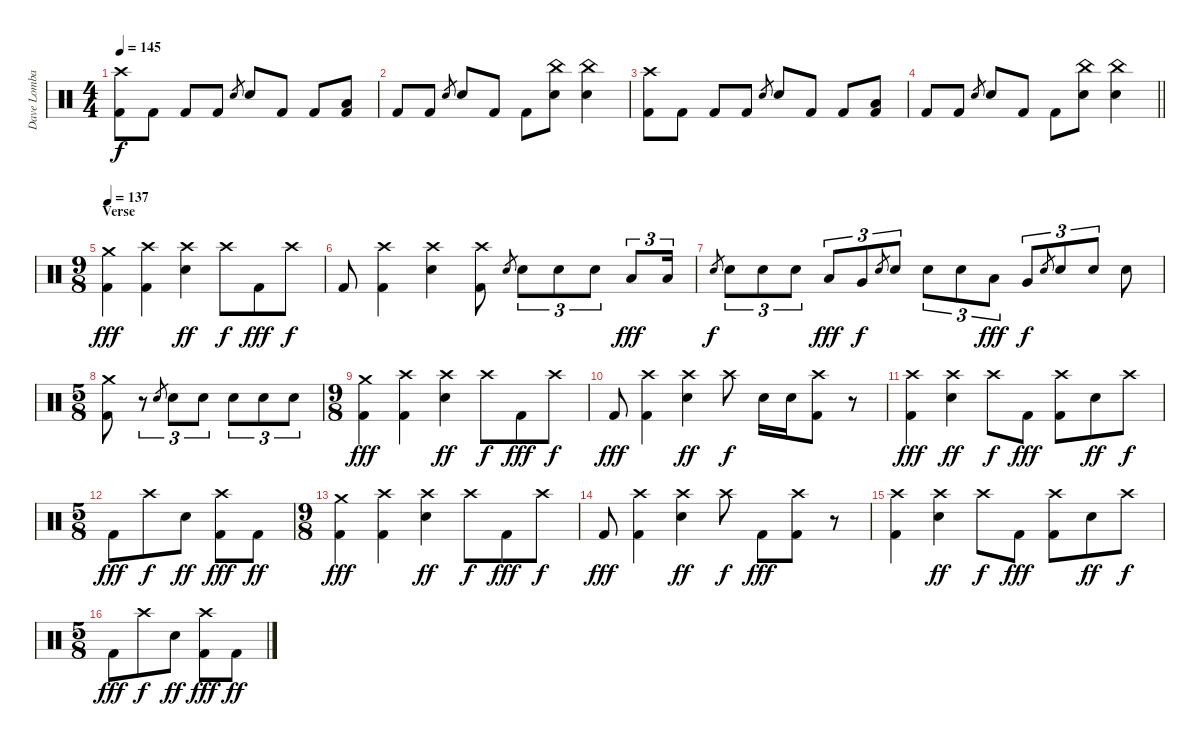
\track ("Dave Lombardo" "Dave Lomba") {instrument percussion}
\staff {score}
\articulation defaults
\ts (4 4)
\tempo 145
\clef neutral
\ks c
("Crash high (hit)" "Kick (hit) 2").8{dy f} "Kick (hit) 2".8 "Kick (hit) 2".8 "Kick (hit) 2".8 "Snare (hit) 2".8{gr} "Snare (hit) 2".8 "Kick (hit) 2".8 "Kick (hit) 2".8 ("Low Floor Tom (hit)" "Kick (hit) 2").8 |
"Kick (hit) 2".8 "Kick (hit) 2".8 "Snare (hit) 2".8{gr} "Snare (hit) 2".8 "Kick (hit) 2".8 "Kick (hit) 2".8 ("China (hit)" "Snare (hit) 2").8 ("China (hit)" "Snare (hit) 2").4 |
("Crash high (hit)" "Kick (hit) 2").8 "Kick (hit) 2".8 "Kick (hit) 2".8 "Kick (hit) 2".8 "Snare (hit) 2".8{gr} "Snare (hit) 2".8 "Kick (hit) 2".8 "Kick (hit) 2".8 ("Low Floor Tom (hit)" "Kick (hit) 2").8 |
\barLineRight lightlight "Kick (hit) 2".8 "Kick (hit) 2".8 "Snare (hit) 2".8{gr} "Snare (hit) 2".8 "Kick (hit) 2".8 "Kick (hit) 2".8
("China (hit)" "Snare (hit) 2").8 ("China (hit)" "Snare (hit) 2").4 |
\ts (9 8)
\section ("" "Verse ")
\tempo 137
("Crash medium (hit)" "Kick (hit) 2").4{dy fff} ("Crash high (hit)" "Kick (hit) 2").4 ("Crash high (hit)" "Snare (hit) 2").4{dy ff} "Crash high (hit)".8{dy f} "Kick (hit) 2".8{dy fff} "Crash high (hit)".8{dy f} |
"Kick (hit) 2".8 ("Crash high (hit)" "Kick (hit) 2").4 ("Crash high (hit)" "Snare (hit) 2").4 ("Crash high (hit)" "Kick (hit) 2").8 "Snare (hit) 2".8{gr} "Snare (hit) 2".8{tu (3 2)} "Snare (hit) 2".8{tu (3 2)} "Snare (hit) 2".8{tu (3 2)} "Low Tom (hit)".8{tu (3 2) dy fff} "Low Tom (hit)".16{tu (3 2)} |
"Snare (hit) 2".8{gr dy f} "Snare (hit) 2".8{tu (3 2)} "Snare (hit) 2".8{tu (3 2)} "Snare (hit) 2".8{tu (3 2)} "Low Tom (hit)".8{tu (3 2) dy fff} "Very Low Tom (hit)".8{tu (3 2) dy f} "Snare (hit) 2".8{gr} "Snare (hit) 2".8{tu (3 2)} "Snare (hit) 2".8{tu (3 2)} "Snare (hit) 2".8{tu (3 2)} "Low Tom (hit)".8{tu (3 2) dy fff} "Very Low Tom (hit)".8{tu (3 2) dy f} "Snare (hit) 2".8{gr} "Snare (hit) 2".8{tu (3 2)} "Snare (hit) 2".8{tu (3 2)} "Snare (hit) 2".8 |
\ts (5 8)
("Crash medium (hit)" "Kick (hit) 2").8 r.8{tu (3 2)} "Snare (hit) 2".8{gr} "Snare (hit) 2".8{tu (3 2)} "Snare (hit) 2".8{tu (3 2)} "Snare (hit) 2".8{tu (3 2)} "Snare (hit) 2".8{tu (3 2)} "Snare (hit) 2".8{tu (3 2)} |
\ts (9 8)
("Crash medium (hit)" "Kick (hit) 2").4{dy fff} ("Crash high (hit)" "Kick (hit) 2").4 ("Crash high (hit)" "Snare (hit) 2").4{dy ff} "Crash high (hit)".8{dy f} "Kick (hit) 2".8{dy fff} "Crash high (hit)".8{dy f} |
"Kick (hit) 2".8{dy fff} ("Crash high (hit)" "Kick (hit) 2").4 ("Crash high (hit)" "Snare (hit) 2").4{dy ff} "Crash high (hit)".8{dy f} "Snare (hit) 2".16 "Snare (hit) 2".16 ("Crash high (hit)" "Kick (hit) 2").8 r.8 |
("Crash high (hit)" "Kick (hit) 2").4{dy fff} ("Crash high (hit)" "Snare (hit) 2").4{dy ff} "Crash high (hit)".8{dy f} "Kick (hit) 2".8{dy fff} ("Crash high (hit)" "Kick (hit) 2").8 "Snare (hit) 2".8{dy ff} "Crash high (hit)".8{dy f} |
\ts (5 8)
"Kick (hit) 2".8{dy fff} "Crash high (hit)".8{dy f} "Snare (hit) 2".8{dy ff} ("Crash high (hit)" "Kick (hit) 2").8{dy fff} "Kick (hit) 2".8{dy ff} |
\ts (9 8)
("Crash medium (hit)" "Kick (hit) 2").4{dy fff} ("Crash high (hit)" "Kick (hit) 2").4 ("Crash high (hit)" "Snare (hit) 2").4{dy ff} "Crash high (hit)".8{dy f} "Kick (hit) 2".8{dy fff} "Crash high (hit)".8{dy f} |
"Kick (hit) 2".8{dy fff} ("Crash high (hit)" "Kick (hit) 2").4 ("Crash high (hit)" "Snare (hit) 2").4{dy ff} "Crash high (hit)".8{dy f} "Kick (hit) 2".8{dy fff} ("Crash high (hit)" "Kick (hit) 2").8 r.8 |
("Crash high (hit)" "Kick (hit) 2").4 ("Crash high (hit)" "Snare (hit) 2").4{dy ff} "Crash high (hit)".8{dy f} "Kick (hit) 2".8{dy fff} ("Crash high (hit)" "Kick (hit) 2").8 "Snare (hit) 2".8{dy ff} "Crash high (hit)".8{dy f} |
\ts (5 8)
"Kick (hit) 2".8{dy fff} "Crash high (hit)".8{dy f} "Snare (hit) 2".8{dy ff} ("Crash high (hit)" "Kick (hit) 2").8{dy fff} "Kick (hit) 2".8{dy ff}
